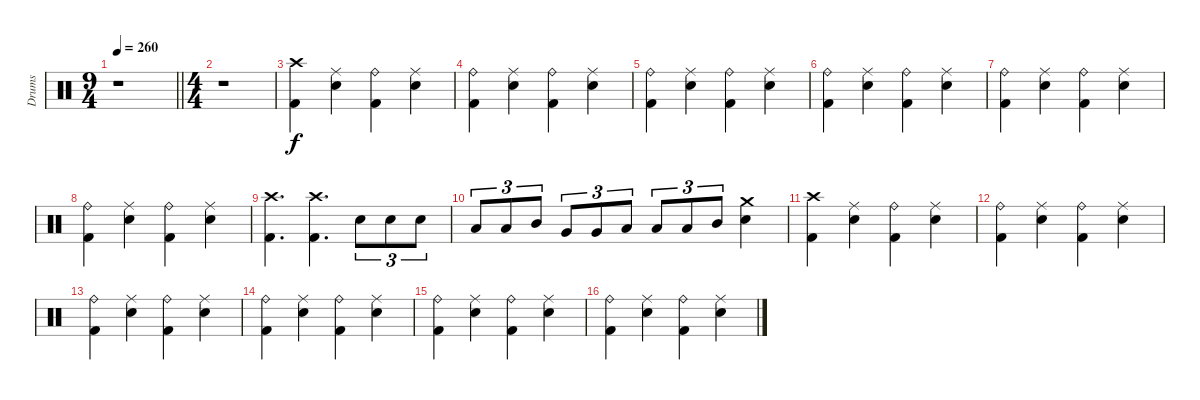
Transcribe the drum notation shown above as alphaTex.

\track ("Drums" "Drums") {instrument percussion}
\staff {score}
\articulation defaults
\ts (9 4)
\tempo 260
\clef neutral
\barLineRight lightlight
\ks c
r.1{dy f} |
\ts (4 4)
r.1 |
("Crash high (hit)" "Kick (hit) 2").4 ("Ride (middle)" "Electric Snare (hit)").4 ("Ride (bell)" "Kick (hit) 2").4 ("Ride (middle)" "Electric Snare (hit)").4 |
("Ride (bell)" "Kick (hit) 2").4 ("Ride (middle)" "Electric Snare (hit)").4 ("Ride (bell)" "Kick (hit) 2").4 ("Ride (middle)" "Electric Snare (hit)").4 |
("Ride (bell)" "Kick (hit) 2").4 ("Ride (middle)" "Electric Snare (hit)").4 ("Ride (bell)" "Kick (hit) 2").4 ("Ride (middle)" "Electric Snare (hit)").4 |
("Ride (bell)" "Kick (hit) 2").4 ("Ride (middle)" "Electric Snare (hit)").4 ("Ride (bell)" "Kick (hit) 2").4 ("Ride (middle)" "Electric Snare (hit)").4 |
("Ride (bell)" "Kick (hit) 2").4 ("Ride (middle)" "Electric Snare (hit)").4 ("Ride (bell)" "Kick (hit) 2").4 ("Ride (middle)" "Electric Snare (hit)").4 |
("Ride (bell)" "Kick (hit) 2").4 ("Ride (middle)" "Electric Snare (hit)").4 ("Ride (bell)" "Kick (hit) 2").4 ("Ride (middle)" "Electric Snare (hit)").4 |
("Crash high (hit)" "Kick (hit) 2").4{d} ("Crash high (hit)" "Kick (hit) 2").4{d} "Electric Snare (hit)".8{tu (3 2)} "Electric Snare (hit)".8{tu (3 2)} "Electric Snare (hit)".8{tu (3 2)} |
"Low Tom (hit)".8{tu (3 2)} "Low Tom (hit)".8{tu (3 2)} "Mid Tom (hit)".8{tu (3 2)} "Very Low Tom (hit)".8{tu (3 2)} "Very Low Tom (hit)".8{tu (3 2)} "Low Tom (hit)".8{tu (3 2)} "Low Tom (hit)".8{tu (3 2)} "Low Tom (hit)".8{tu (3 2)} "Mid Tom (hit)".8{tu (3 2)} ("Crash medium (hit)" "Electric Snare (hit)").4 |
("Crash high (hit)" "Kick (hit) 2").4 ("Ride (middle)" "Electric Snare (hit)").4 ("Ride (bell)" "Kick (hit) 2").4 ("Ride (middle)" "Electric Snare (hit)").4 |
("Ride (bell)" "Kick (hit) 2").4 ("Ride (middle)" "Electric Snare (hit)").4 ("Ride (bell)" "Kick (hit) 2").4 ("Ride (middle)" "Electric Snare (hit)").4 |
("Ride (bell)" "Kick (hit) 2").4 ("Ride (middle)" "Electric Snare (hit)").4 ("Ride (bell)" "Kick (hit) 2").4 ("Ride (middle)" "Electric Snare (hit)").4 |
("Ride (bell)" "Kick (hit) 2").4 ("Ride (middle)" "Electric Snare (hit)").4 ("Ride (bell)" "Kick (hit) 2").4 ("Ride (middle)" "Electric Snare (hit)").4 |
("Ride (bell)" "Kick (hit) 2").4 ("Ride (middle)" "Electric Snare (hit)").4 ("Ride (bell)" "Kick (hit) 2").4 ("Ride (middle)" "Electric Snare (hit)").4 |
("Ride (bell)" "Kick (hit) 2").4 ("Ride (middle)" "Electric Snare (hit)").4 ("Ride (bell)" "Kick (hit) 2").4 ("Ride (middle)" "Electric Snare (hit)").4
